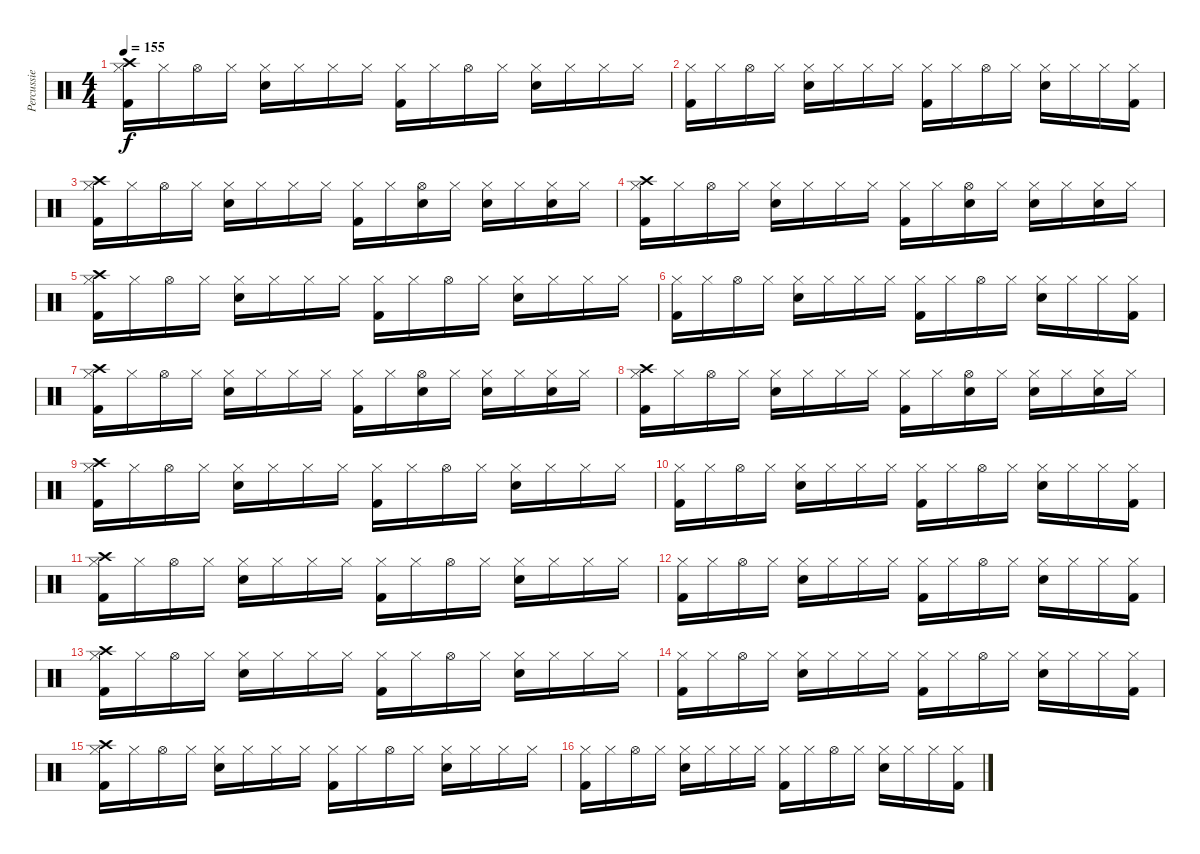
\track ("Percussie" "Percussie") {instrument percussion}
\staff {score}
\articulation defaults
\ts (4 4)
\tempo 155
\clef neutral
\ks c
("Kick (hit) 2" "Hi-Hat (closed)" "Crash high (hit)").16{dy f} "Hi-Hat (closed)".16 "Hi-Hat (open)".16 "Hi-Hat (closed)".16 ("Electric Snare (hit)" "Hi-Hat (closed)").16 "Hi-Hat (closed)".16 "Hi-Hat (closed)".16 "Hi-Hat (closed)".16 ("Kick (hit) 2" "Hi-Hat (closed)").16 "Hi-Hat (closed)".16 "Hi-Hat (open)".16 "Hi-Hat (closed)".16 ("Electric Snare (hit)" "Hi-Hat (closed)").16 "Hi-Hat (closed)".16 "Hi-Hat (closed)".16 "Hi-Hat (closed)".16 |
("Kick (hit) 2" "Hi-Hat (closed)").16 "Hi-Hat (closed)".16 "Hi-Hat (open)".16 "Hi-Hat (closed)".16 ("Electric Snare (hit)" "Hi-Hat (closed)").16 "Hi-Hat (closed)".16 "Hi-Hat (closed)".16 "Hi-Hat (closed)".16 ("Kick (hit) 2" "Hi-Hat (closed)").16 "Hi-Hat (closed)".16 "Hi-Hat (open)".16 "Hi-Hat (closed)".16 ("Electric Snare (hit)" "Hi-Hat (closed)").16 "Hi-Hat (closed)".16 "Hi-Hat (closed)".16 ("Kick (hit) 2" "Hi-Hat (closed)").16 |
("Kick (hit) 2" "Hi-Hat (closed)" "Crash high (hit)").16 "Hi-Hat (closed)".16 "Hi-Hat (open)".16 "Hi-Hat (closed)".16 ("Electric Snare (hit)" "Hi-Hat (closed)").16 "Hi-Hat (closed)".16 "Hi-Hat (closed)".16 "Hi-Hat (closed)".16 ("Kick (hit) 2" "Hi-Hat (closed)").16 "Hi-Hat (closed)".16 ("Electric Snare (hit)" "Hi-Hat (open)").16 "Hi-Hat (closed)".16 ("Electric Snare (hit)" "Hi-Hat (closed)").16 "Hi-Hat (closed)".16 ("Electric Snare (hit)" "Hi-Hat (closed)").16 "Hi-Hat (closed)".16 |
("Kick (hit) 2" "Hi-Hat (closed)" "Crash high (hit)").16 "Hi-Hat (closed)".16 "Hi-Hat (open)".16 "Hi-Hat (closed)".16 ("Electric Snare (hit)" "Hi-Hat (closed)").16 "Hi-Hat (closed)".16 "Hi-Hat (closed)".16 "Hi-Hat (closed)".16 ("Kick (hit) 2" "Hi-Hat (closed)").16 "Hi-Hat (closed)".16 ("Electric Snare (hit)" "Hi-Hat (open)").16 "Hi-Hat (closed)".16 ("Electric Snare (hit)" "Hi-Hat (closed)").16 "Hi-Hat (closed)".16 ("Electric Snare (hit)" "Hi-Hat (closed)").16 "Hi-Hat (closed)".16 |
("Kick (hit) 2" "Hi-Hat (closed)" "Crash high (hit)").16 "Hi-Hat (closed)".16 "Hi-Hat (open)".16 "Hi-Hat (closed)".16 ("Electric Snare (hit)" "Hi-Hat (closed)").16 "Hi-Hat (closed)".16 "Hi-Hat (closed)".16 "Hi-Hat (closed)".16 ("Kick (hit) 2" "Hi-Hat (closed)").16 "Hi-Hat (closed)".16 "Hi-Hat (open)".16 "Hi-Hat (closed)".16 ("Electric Snare (hit)" "Hi-Hat (closed)").16 "Hi-Hat (closed)".16 "Hi-Hat (closed)".16 "Hi-Hat (closed)".16 |
("Kick (hit) 2" "Hi-Hat (closed)").16 "Hi-Hat (closed)".16 "Hi-Hat (open)".16 "Hi-Hat (closed)".16 ("Electric Snare (hit)" "Hi-Hat (closed)").16 "Hi-Hat (closed)".16 "Hi-Hat (closed)".16 "Hi-Hat (closed)".16 ("Kick (hit) 2" "Hi-Hat (closed)").16 "Hi-Hat (closed)".16 "Hi-Hat (open)".16 "Hi-Hat (closed)".16 ("Electric Snare (hit)" "Hi-Hat (closed)").16 "Hi-Hat (closed)".16 "Hi-Hat (closed)".16 ("Kick (hit) 2" "Hi-Hat (closed)").16 |
("Kick (hit) 2" "Hi-Hat (closed)" "Crash high (hit)").16 "Hi-Hat (closed)".16 "Hi-Hat (open)".16 "Hi-Hat (closed)".16 ("Electric Snare (hit)" "Hi-Hat (closed)").16 "Hi-Hat (closed)".16 "Hi-Hat (closed)".16 "Hi-Hat (closed)".16 ("Kick (hit) 2" "Hi-Hat (closed)").16 "Hi-Hat (closed)".16 ("Electric Snare (hit)" "Hi-Hat (open)").16 "Hi-Hat (closed)".16 ("Electric Snare (hit)" "Hi-Hat (closed)").16 "Hi-Hat (closed)".16 ("Electric Snare (hit)" "Hi-Hat (closed)").16 "Hi-Hat (closed)".16 |
("Kick (hit) 2" "Hi-Hat (closed)" "Crash high (hit)").16 "Hi-Hat (closed)".16 "Hi-Hat (open)".16 "Hi-Hat (closed)".16 ("Electric Snare (hit)" "Hi-Hat (closed)").16 "Hi-Hat (closed)".16 "Hi-Hat (closed)".16 "Hi-Hat (closed)".16 ("Kick (hit) 2" "Hi-Hat (closed)").16 "Hi-Hat (closed)".16 ("Electric Snare (hit)" "Hi-Hat (open)").16 "Hi-Hat (closed)".16 ("Electric Snare (hit)" "Hi-Hat (closed)").16 "Hi-Hat (closed)".16 ("Electric Snare (hit)" "Hi-Hat (closed)").16 "Hi-Hat (closed)".16 |
("Kick (hit) 2" "Hi-Hat (closed)" "Crash high (hit)").16 "Hi-Hat (closed)".16 "Hi-Hat (open)".16 "Hi-Hat (closed)".16 ("Electric Snare (hit)" "Hi-Hat (closed)").16 "Hi-Hat (closed)".16 "Hi-Hat (closed)".16 "Hi-Hat (closed)".16 ("Kick (hit) 2" "Hi-Hat (closed)").16 "Hi-Hat (closed)".16 "Hi-Hat (open)".16 "Hi-Hat (closed)".16 ("Electric Snare (hit)" "Hi-Hat (closed)").16 "Hi-Hat (closed)".16 "Hi-Hat (closed)".16 "Hi-Hat (closed)".16 |
("Kick (hit) 2" "Hi-Hat (closed)").16 "Hi-Hat (closed)".16 "Hi-Hat (open)".16 "Hi-Hat (closed)".16 ("Electric Snare (hit)" "Hi-Hat (closed)").16 "Hi-Hat (closed)".16 "Hi-Hat (closed)".16 "Hi-Hat (closed)".16 ("Kick (hit) 2" "Hi-Hat (closed)").16 "Hi-Hat (closed)".16 "Hi-Hat (open)".16 "Hi-Hat (closed)".16 ("Electric Snare (hit)" "Hi-Hat (closed)").16 "Hi-Hat (closed)".16 "Hi-Hat (closed)".16 ("Kick (hit) 2" "Hi-Hat (closed)").16 |
("Kick (hit) 2" "Hi-Hat (closed)" "Crash high (hit)").16 "Hi-Hat (closed)".16 "Hi-Hat (open)".16 "Hi-Hat (closed)".16 ("Electric Snare (hit)" "Hi-Hat (closed)").16 "Hi-Hat (closed)".16 "Hi-Hat (closed)".16 "Hi-Hat (closed)".16 ("Kick (hit) 2" "Hi-Hat (closed)").16 "Hi-Hat (closed)".16 "Hi-Hat (open)".16 "Hi-Hat (closed)".16 ("Electric Snare (hit)" "Hi-Hat (closed)").16 "Hi-Hat (closed)".16 "Hi-Hat (closed)".16 "Hi-Hat (closed)".16 |
("Kick (hit) 2" "Hi-Hat (closed)").16 "Hi-Hat (closed)".16 "Hi-Hat (open)".16 "Hi-Hat (closed)".16 ("Electric Snare (hit)" "Hi-Hat (closed)").16 "Hi-Hat (closed)".16 "Hi-Hat (closed)".16 "Hi-Hat (closed)".16 ("Kick (hit) 2" "Hi-Hat (closed)").16 "Hi-Hat (closed)".16 "Hi-Hat (open)".16 "Hi-Hat (closed)".16 ("Electric Snare (hit)" "Hi-Hat (closed)").16 "Hi-Hat (closed)".16 "Hi-Hat (closed)".16 ("Kick (hit) 2" "Hi-Hat (closed)").16 |
("Kick (hit) 2" "Hi-Hat (closed)" "Crash high (hit)").16 "Hi-Hat (closed)".16 "Hi-Hat (open)".16 "Hi-Hat (closed)".16 ("Electric Snare (hit)" "Hi-Hat (closed)").16 "Hi-Hat (closed)".16 "Hi-Hat (closed)".16 "Hi-Hat (closed)".16 ("Kick (hit) 2" "Hi-Hat (closed)").16 "Hi-Hat (closed)".16 "Hi-Hat (open)".16 "Hi-Hat (closed)".16 ("Electric Snare (hit)" "Hi-Hat (closed)").16 "Hi-Hat (closed)".16 "Hi-Hat (closed)".16 "Hi-Hat (closed)".16 |
("Kick (hit) 2" "Hi-Hat (closed)").16 "Hi-Hat (closed)".16 "Hi-Hat (open)".16 "Hi-Hat (closed)".16 ("Electric Snare (hit)" "Hi-Hat (closed)").16 "Hi-Hat (closed)".16 "Hi-Hat (closed)".16 "Hi-Hat (closed)".16 ("Kick (hit) 2" "Hi-Hat (closed)").16 "Hi-Hat (closed)".16 "Hi-Hat (open)".16 "Hi-Hat (closed)".16 ("Electric Snare (hit)" "Hi-Hat (closed)").16 "Hi-Hat (closed)".16 "Hi-Hat (closed)".16 ("Kick (hit) 2" "Hi-Hat (closed)").16 |
("Kick (hit) 2" "Hi-Hat (closed)" "Crash high (hit)").16 "Hi-Hat (closed)".16 "Hi-Hat (open)".16 "Hi-Hat (closed)".16 ("Electric Snare (hit)" "Hi-Hat (closed)").16 "Hi-Hat (closed)".16 "Hi-Hat (closed)".16 "Hi-Hat (closed)".16 ("Kick (hit) 2" "Hi-Hat (closed)").16 "Hi-Hat (closed)".16 "Hi-Hat (open)".16 "Hi-Hat (closed)".16 ("Electric Snare (hit)" "Hi-Hat (closed)").16 "Hi-Hat (closed)".16 "Hi-Hat (closed)".16 "Hi-Hat (closed)".16 |
("Kick (hit) 2" "Hi-Hat (closed)").16 "Hi-Hat (closed)".16 "Hi-Hat (open)".16 "Hi-Hat (closed)".16 ("Electric Snare (hit)" "Hi-Hat (closed)").16 "Hi-Hat (closed)".16 "Hi-Hat (closed)".16 "Hi-Hat (closed)".16 ("Kick (hit) 2" "Hi-Hat (closed)").16 "Hi-Hat (closed)".16 "Hi-Hat (open)".16 "Hi-Hat (closed)".16 ("Electric Snare (hit)" "Hi-Hat (closed)").16 "Hi-Hat (closed)".16 "Hi-Hat (closed)".16 ("Kick (hit) 2" "Hi-Hat (closed)").16
